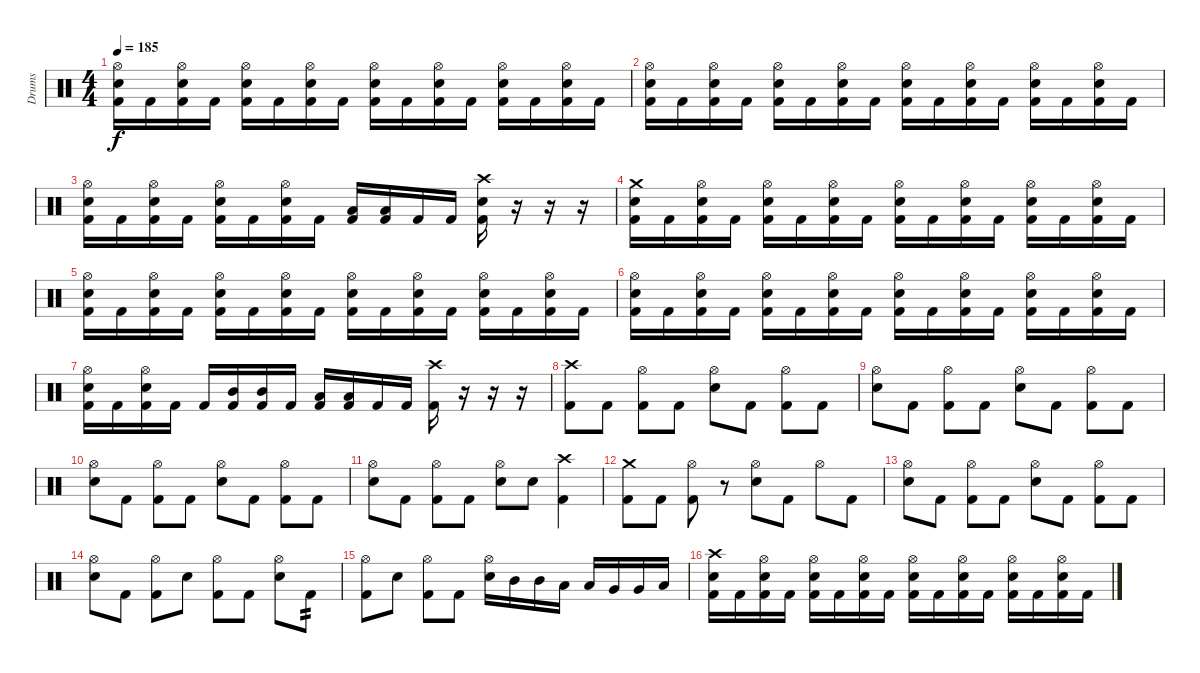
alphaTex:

\track ("Drums" "Drums") {instrument percussion}
\staff {score}
\articulation defaults
\ts (4 4)
\tempo 185
\clef neutral
\ks c
("Hi-Hat (open)" "Electric Snare (hit)" "Kick (hit) 2").16{dy f} "Kick (hit) 2".16 ("Hi-Hat (open)" "Electric Snare (hit)" "Kick (hit) 2").16 "Kick (hit) 2".16 ("Hi-Hat (open)" "Electric Snare (hit)" "Kick (hit) 2").16 "Kick (hit) 2".16 ("Hi-Hat (open)" "Electric Snare (hit)" "Kick (hit) 2").16 "Kick (hit) 2".16 ("Hi-Hat (open)" "Electric Snare (hit)" "Kick (hit) 2").16 "Kick (hit) 2".16 ("Hi-Hat (open)" "Electric Snare (hit)" "Kick (hit) 2").16 "Kick (hit) 2".16 ("Hi-Hat (open)" "Electric Snare (hit)" "Kick (hit) 2").16 "Kick (hit) 2".16 ("Hi-Hat (open)" "Electric Snare (hit)" "Kick (hit) 2").16 "Kick (hit) 2".16 |
("Hi-Hat (open)" "Electric Snare (hit)" "Kick (hit) 2").16 "Kick (hit) 2".16 ("Hi-Hat (open)" "Electric Snare (hit)" "Kick (hit) 2").16 "Kick (hit) 2".16 ("Hi-Hat (open)" "Electric Snare (hit)" "Kick (hit) 2").16 "Kick (hit) 2".16 ("Hi-Hat (open)" "Electric Snare (hit)" "Kick (hit) 2").16 "Kick (hit) 2".16 ("Hi-Hat (open)" "Electric Snare (hit)" "Kick (hit) 2").16 "Kick (hit) 2".16 ("Hi-Hat (open)" "Electric Snare (hit)" "Kick (hit) 2").16 "Kick (hit) 2".16 ("Hi-Hat (open)" "Electric Snare (hit)" "Kick (hit) 2").16 "Kick (hit) 2".16 ("Hi-Hat (open)" "Electric Snare (hit)" "Kick (hit) 2").16 "Kick (hit) 2".16 |
("Hi-Hat (open)" "Electric Snare (hit)" "Kick (hit) 2").16 "Kick (hit) 2".16 ("Hi-Hat (open)" "Electric Snare (hit)" "Kick (hit) 2").16 "Kick (hit) 2".16 ("Hi-Hat (open)" "Electric Snare (hit)" "Kick (hit) 2").16 "Kick (hit) 2".16 ("Hi-Hat (open)" "Electric Snare (hit)" "Kick (hit) 2").16 "Kick (hit) 2".16 ("Low Tom (hit)" "Kick (hit) 2").16 ("Low Tom (hit)" "Kick (hit) 2").16 "Kick (hit) 2".16 "Kick (hit) 2".16 ("Crash high (hit)" "Electric Snare (hit)" "Kick (hit) 2").16 r.16 r.16 r.16 |
("Crash medium (hit)" "Electric Snare (hit)" "Kick (hit) 2").16 "Kick (hit) 2".16 ("Hi-Hat (open)" "Electric Snare (hit)" "Kick (hit) 2").16 "Kick (hit) 2".16 ("Hi-Hat (open)" "Electric Snare (hit)" "Kick (hit) 2").16 "Kick (hit) 2".16 ("Hi-Hat (open)" "Electric Snare (hit)" "Kick (hit) 2").16 "Kick (hit) 2".16 ("Hi-Hat (open)" "Electric Snare (hit)" "Kick (hit) 2").16 "Kick (hit) 2".16 ("Hi-Hat (open)" "Electric Snare (hit)" "Kick (hit) 2").16 "Kick (hit) 2".16 ("Hi-Hat (open)" "Electric Snare (hit)" "Kick (hit) 2").16 "Kick (hit) 2".16 ("Hi-Hat (open)" "Electric Snare (hit)" "Kick (hit) 2").16 "Kick (hit) 2".16 |
("Hi-Hat (open)" "Electric Snare (hit)" "Kick (hit) 2").16 "Kick (hit) 2".16 ("Hi-Hat (open)" "Electric Snare (hit)" "Kick (hit) 2").16 "Kick (hit) 2".16 ("Hi-Hat (open)" "Electric Snare (hit)" "Kick (hit) 2").16 "Kick (hit) 2".16 ("Hi-Hat (open)" "Electric Snare (hit)" "Kick (hit) 2").16 "Kick (hit) 2".16 ("Hi-Hat (open)" "Electric Snare (hit)" "Kick (hit) 2").16 "Kick (hit) 2".16 ("Hi-Hat (open)" "Electric Snare (hit)" "Kick (hit) 2").16 "Kick (hit) 2".16 ("Hi-Hat (open)" "Electric Snare (hit)" "Kick (hit) 2").16 "Kick (hit) 2".16 ("Hi-Hat (open)" "Electric Snare (hit)" "Kick (hit) 2").16 "Kick (hit) 2".16 |
("Hi-Hat (open)" "Electric Snare (hit)" "Kick (hit) 2").16 "Kick (hit) 2".16 ("Hi-Hat (open)" "Electric Snare (hit)" "Kick (hit) 2").16 "Kick (hit) 2".16 ("Hi-Hat (open)" "Electric Snare (hit)" "Kick (hit) 2").16 "Kick (hit) 2".16 ("Hi-Hat (open)" "Electric Snare (hit)" "Kick (hit) 2").16 "Kick (hit) 2".16 ("Hi-Hat (open)" "Electric Snare (hit)" "Kick (hit) 2").16 "Kick (hit) 2".16 ("Hi-Hat (open)" "Electric Snare (hit)" "Kick (hit) 2").16 "Kick (hit) 2".16 ("Hi-Hat (open)" "Electric Snare (hit)" "Kick (hit) 2").16 "Kick (hit) 2".16 ("Hi-Hat (open)" "Electric Snare (hit)" "Kick (hit) 2").16 "Kick (hit) 2".16 |
("Hi-Hat (open)" "Electric Snare (hit)" "Kick (hit) 2").16 "Kick (hit) 2".16 ("Hi-Hat (open)" "Electric Snare (hit)" "Kick (hit) 2").16 "Kick (hit) 2".16 "Kick (hit) 2".16 ("Mid Tom (hit)" "Kick (hit) 2").16 ("Mid Tom (hit)" "Kick (hit) 2").16 "Kick (hit) 2".16 ("Low Tom (hit)" "Kick (hit) 2").16 ("Low Tom (hit)" "Kick (hit) 2").16 "Kick (hit) 2".16 "Kick (hit) 2".16 ("Crash high (hit)" "Kick (hit) 2").16 r.16 r.16 r.16 |
("Crash high (hit)" "Kick (hit) 2").8 "Kick (hit) 2".8 ("Hi-Hat (open)" "Kick (hit) 2").8 "Kick (hit) 2".8 ("Hi-Hat (open)" "Electric Snare (hit)").8 "Kick (hit) 2".8 ("Hi-Hat (open)" "Kick (hit) 2").8 "Kick (hit) 2".8 |
("Hi-Hat (open)" "Electric Snare (hit)").8 "Kick (hit) 2".8 ("Hi-Hat (open)" "Kick (hit) 2").8 "Kick (hit) 2".8 ("Hi-Hat (open)" "Electric Snare (hit)").8 "Kick (hit) 2".8 ("Hi-Hat (open)" "Kick (hit) 2").8 "Kick (hit) 2".8 |
("Hi-Hat (open)" "Electric Snare (hit)").8 "Kick (hit) 2".8 ("Hi-Hat (open)" "Kick (hit) 2").8 "Kick (hit) 2".8 ("Hi-Hat (open)" "Electric Snare (hit)").8 "Kick (hit) 2".8 ("Hi-Hat (open)" "Kick (hit) 2").8 "Kick (hit) 2".8 |
("Hi-Hat (open)" "Electric Snare (hit)").8 "Kick (hit) 2".8 ("Hi-Hat (open)" "Kick (hit) 2").8 "Kick (hit) 2".8 ("Hi-Hat (open)" "Electric Snare (hit)").8 "Electric Snare (hit)".8 ("Crash high (hit)" "Kick (hit) 2").4 |
("Crash medium (hit)" "Kick (hit) 2").8 "Kick (hit) 2".8 ("Hi-Hat (open)" "Kick (hit) 2").8 r.8 ("Hi-Hat (open)" "Electric Snare (hit)").8 "Kick (hit) 2".8 "Hi-Hat (open)".8 "Kick (hit) 2".8 |
("Hi-Hat (open)" "Electric Snare (hit)").8 "Kick (hit) 2".8 ("Hi-Hat (open)" "Kick (hit) 2").8 "Kick (hit) 2".8 ("Hi-Hat (open)" "Electric Snare (hit)").8 "Kick (hit) 2".8 ("Hi-Hat (open)" "Kick (hit) 2").8 "Kick (hit) 2".8 |
("Hi-Hat (open)" "Electric Snare (hit)").8 "Kick (hit) 2".8 ("Hi-Hat (open)" "Kick (hit) 2").8 "Electric Snare (hit)".8 ("Hi-Hat (open)" "Kick (hit) 2").8 "Kick (hit) 2".8 ("Hi-Hat (open)" "Electric Snare (hit)").8 "Kick (hit) 2".8{tp 2} |
("Hi-Hat (open)" "Kick (hit) 2").8 "Electric Snare (hit)".8 ("Hi-Hat (open)" "Kick (hit) 2").8 "Kick (hit) 2".8 ("Hi-Hat (open)" "Electric Snare (hit)").16 "Mid Tom (hit)".16 "Mid Tom (hit)".16 "Low Tom (hit)".16 "Low Tom (hit)".16 "Very Low Tom (hit)".16 "Very Low Tom (hit)".16 "Low Floor Tom (hit)".16 |
("Crash high (hit)" "Electric Snare (hit)" "Kick (hit) 2").16 "Kick (hit) 2".16 ("Hi-Hat (open)" "Electric Snare (hit)" "Kick (hit) 2").16 "Kick (hit) 2".16 ("Hi-Hat (open)" "Electric Snare (hit)" "Kick (hit) 2").16 "Kick (hit) 2".16 ("Hi-Hat (open)" "Electric Snare (hit)" "Kick (hit) 2").16 "Kick (hit) 2".16 ("Hi-Hat (open)" "Electric Snare (hit)" "Kick (hit) 2").16 "Kick (hit) 2".16 ("Hi-Hat (open)" "Electric Snare (hit)" "Kick (hit) 2").16 "Kick (hit) 2".16 ("Hi-Hat (open)" "Electric Snare (hit)" "Kick (hit) 2").16 "Kick (hit) 2".16 ("Hi-Hat (open)" "Electric Snare (hit)" "Kick (hit) 2").16 "Kick (hit) 2".16
